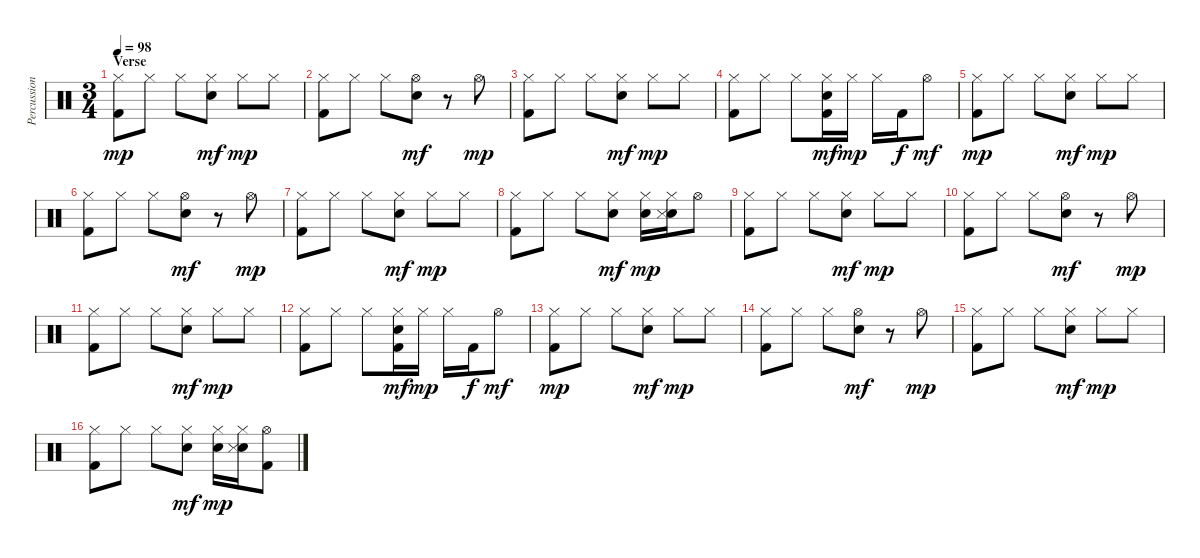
\track ("Percussion" "Percussion") {instrument percussion}
\staff {score}
\articulation defaults
\ts (3 4)
\section ("" "Verse")
\tempo 98
\clef neutral
\ks c
("Hi-Hat (closed)" "Kick (hit) 2").8{dy mp} "Hi-Hat (closed)".8 "Hi-Hat (closed)".8 ("Hi-Hat (closed)" "Electric Snare (hit)").8{dy mf} "Hi-Hat (closed)".8{dy mp} "Hi-Hat (closed)".8 |
("Hi-Hat (closed)" "Kick (hit) 2").8 "Hi-Hat (closed)".8 "Hi-Hat (closed)".8 ("Hi-Hat (open)" "Electric Snare (hit)").8{dy mf} r.8 "Hi-Hat (open)".8{dy mp} |
("Hi-Hat (closed)" "Kick (hit) 2").8 "Hi-Hat (closed)".8 "Hi-Hat (closed)".8 ("Hi-Hat (closed)" "Electric Snare (hit)").8{dy mf} "Hi-Hat (closed)".8{dy mp} "Hi-Hat (closed)".8 |
("Hi-Hat (closed)" "Kick (hit) 2").8 "Hi-Hat (closed)".8 "Hi-Hat (closed)".8 ("Hi-Hat (closed)" "Electric Snare (hit)" "Kick (hit) 2").16{dy mf} "Hi-Hat (closed)".16{dy mp} "Hi-Hat (closed)".16 "Kick (hit) 2".16{dy f} "Hi-Hat (open)".8{dy mf} |
("Hi-Hat (closed)" "Kick (hit) 2").8{dy mp} "Hi-Hat (closed)".8 "Hi-Hat (closed)".8 ("Hi-Hat (closed)" "Electric Snare (hit)").8{dy mf} "Hi-Hat (closed)".8{dy mp} "Hi-Hat (closed)".8 |
("Hi-Hat (closed)" "Kick (hit) 2").8 "Hi-Hat (closed)".8 "Hi-Hat (closed)".8 ("Hi-Hat (open)" "Electric Snare (hit)").8{dy mf} r.8 "Hi-Hat (open)".8{dy mp} |
("Hi-Hat (closed)" "Kick (hit) 2").8 "Hi-Hat (closed)".8 "Hi-Hat (closed)".8 ("Hi-Hat (closed)" "Electric Snare (hit)").8{dy mf} "Hi-Hat (closed)".8{dy mp} "Hi-Hat (closed)".8 |
("Hi-Hat (closed)" "Kick (hit) 2").8 "Hi-Hat (closed)".8 "Hi-Hat (closed)".8 ("Hi-Hat (closed)" "Electric Snare (hit)").8{dy mf} ("Hi-Hat (closed)" "Electric Snare (hit)").16{dy mp} ("Hi-Hat (closed)" "Electric Snare (hit)" "Snare (side stick) 3").16 "Hi-Hat (open)".8 |
("Hi-Hat (closed)" "Kick (hit) 2").8 "Hi-Hat (closed)".8 "Hi-Hat (closed)".8 ("Hi-Hat (closed)" "Electric Snare (hit)").8{dy mf} "Hi-Hat (closed)".8{dy mp} "Hi-Hat (closed)".8 |
("Hi-Hat (closed)" "Kick (hit) 2").8 "Hi-Hat (closed)".8 "Hi-Hat (closed)".8 ("Hi-Hat (open)" "Electric Snare (hit)").8{dy mf} r.8 "Hi-Hat (open)".8{dy mp} |
("Hi-Hat (closed)" "Kick (hit) 2").8 "Hi-Hat (closed)".8 "Hi-Hat (closed)".8 ("Hi-Hat (closed)" "Electric Snare (hit)").8{dy mf} "Hi-Hat (closed)".8{dy mp} "Hi-Hat (closed)".8 |
("Hi-Hat (closed)" "Kick (hit) 2").8 "Hi-Hat (closed)".8 "Hi-Hat (closed)".8 ("Hi-Hat (closed)" "Electric Snare (hit)" "Kick (hit) 2").16{dy mf} "Hi-Hat (closed)".16{dy mp} "Hi-Hat (closed)".16 "Kick (hit) 2".16{dy f} "Hi-Hat (open)".8{dy mf} |
("Hi-Hat (closed)" "Kick (hit) 2").8{dy mp} "Hi-Hat (closed)".8 "Hi-Hat (closed)".8 ("Hi-Hat (closed)" "Electric Snare (hit)").8{dy mf} "Hi-Hat (closed)".8{dy mp} "Hi-Hat (closed)".8 |
("Hi-Hat (closed)" "Kick (hit) 2").8 "Hi-Hat (closed)".8 "Hi-Hat (closed)".8 ("Hi-Hat (open)" "Electric Snare (hit)").8{dy mf} r.8 "Hi-Hat (open)".8{dy mp} |
("Hi-Hat (closed)" "Kick (hit) 2").8 "Hi-Hat (closed)".8 "Hi-Hat (closed)".8 ("Hi-Hat (closed)" "Electric Snare (hit)").8{dy mf} "Hi-Hat (closed)".8{dy mp} "Hi-Hat (closed)".8 |
("Hi-Hat (closed)" "Kick (hit) 2").8 "Hi-Hat (closed)".8 "Hi-Hat (closed)".8 ("Hi-Hat (closed)" "Electric Snare (hit)").8{dy mf} ("Hi-Hat (closed)" "Electric Snare (hit)").16{dy mp} ("Hi-Hat (closed)" "Electric Snare (hit)" "Snare (side stick) 3").16 ("Hi-Hat (open)" "Kick (hit) 2").8
